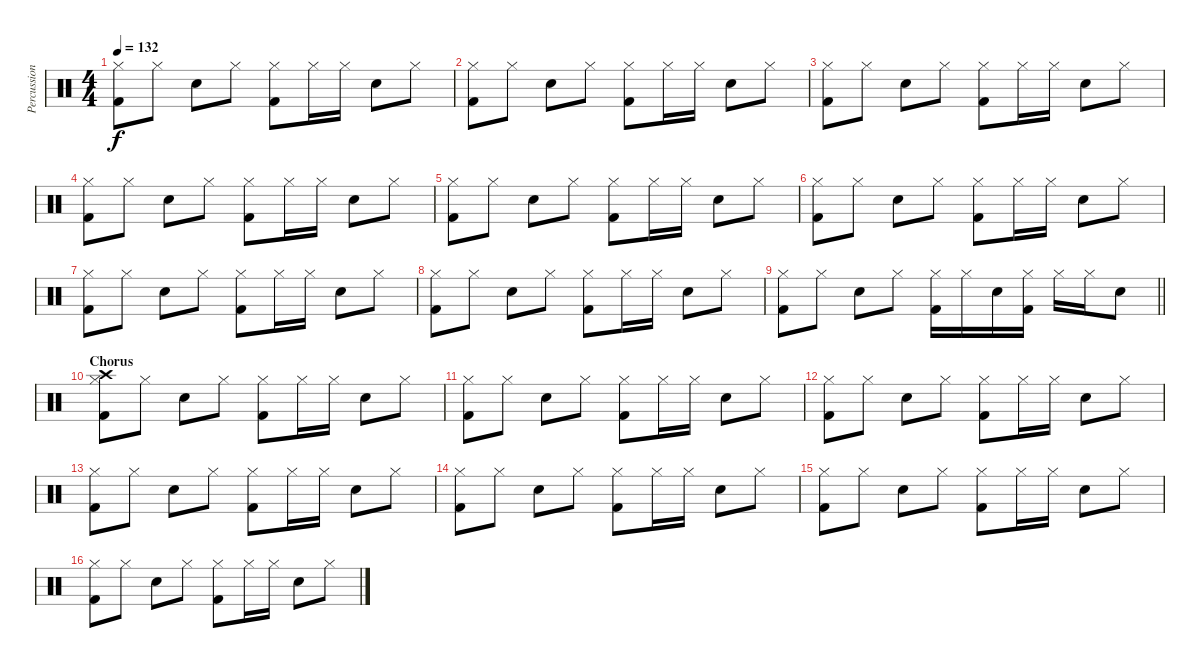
\track ("Percussion" "Percussion") {instrument percussion}
\staff {score}
\articulation defaults
\ts (4 4)
\tempo 132
\clef neutral
\ks c
("Hi-Hat (closed)" "Kick (hit) 2").8{dy f} "Hi-Hat (closed)".8 "Snare (hit) 2".8 "Hi-Hat (closed)".8 ("Hi-Hat (closed)" "Kick (hit) 2").8 "Hi-Hat (closed)".16 "Hi-Hat (closed)".16 "Snare (hit) 2".8 "Hi-Hat (closed)".8 |
("Hi-Hat (closed)" "Kick (hit) 2").8 "Hi-Hat (closed)".8 "Snare (hit) 2".8 "Hi-Hat (closed)".8 ("Hi-Hat (closed)" "Kick (hit) 2").8 "Hi-Hat (closed)".16 "Hi-Hat (closed)".16 "Snare (hit) 2".8 "Hi-Hat (closed)".8 |
("Hi-Hat (closed)" "Kick (hit) 2").8 "Hi-Hat (closed)".8 "Snare (hit) 2".8 "Hi-Hat (closed)".8 ("Hi-Hat (closed)" "Kick (hit) 2").8 "Hi-Hat (closed)".16 "Hi-Hat (closed)".16 "Snare (hit) 2".8 "Hi-Hat (closed)".8 |
("Hi-Hat (closed)" "Kick (hit) 2").8 "Hi-Hat (closed)".8 "Snare (hit) 2".8 "Hi-Hat (closed)".8 ("Hi-Hat (closed)" "Kick (hit) 2").8 "Hi-Hat (closed)".16 "Hi-Hat (closed)".16 "Snare (hit) 2".8 "Hi-Hat (closed)".8 |
("Hi-Hat (closed)" "Kick (hit) 2").8 "Hi-Hat (closed)".8 "Snare (hit) 2".8 "Hi-Hat (closed)".8 ("Hi-Hat (closed)" "Kick (hit) 2").8 "Hi-Hat (closed)".16 "Hi-Hat (closed)".16 "Snare (hit) 2".8 "Hi-Hat (closed)".8 |
("Hi-Hat (closed)" "Kick (hit) 2").8 "Hi-Hat (closed)".8 "Snare (hit) 2".8 "Hi-Hat (closed)".8 ("Hi-Hat (closed)" "Kick (hit) 2").8 "Hi-Hat (closed)".16 "Hi-Hat (closed)".16 "Snare (hit) 2".8 "Hi-Hat (closed)".8 |
("Hi-Hat (closed)" "Kick (hit) 2").8 "Hi-Hat (closed)".8 "Snare (hit) 2".8 "Hi-Hat (closed)".8 ("Hi-Hat (closed)" "Kick (hit) 2").8 "Hi-Hat (closed)".16 "Hi-Hat (closed)".16 "Snare (hit) 2".8 "Hi-Hat (closed)".8 |
("Hi-Hat (closed)" "Kick (hit) 2").8 "Hi-Hat (closed)".8 "Snare (hit) 2".8 "Hi-Hat (closed)".8 ("Hi-Hat (closed)" "Kick (hit) 2").8 "Hi-Hat (closed)".16 "Hi-Hat (closed)".16 "Snare (hit) 2".8 "Hi-Hat (closed)".8 |
\barLineRight lightlight
("Hi-Hat (closed)" "Kick (hit) 2").8 "Hi-Hat (closed)".8 "Snare (hit) 2".8 "Hi-Hat (closed)".8 ("Hi-Hat (closed)" "Kick (hit) 2").16 "Hi-Hat (closed)".16 "Snare (hit) 2".16 ("Hi-Hat (closed)" "Kick (hit) 2").16 "Hi-Hat (closed)".16 "Hi-Hat (closed)".16 "Snare (hit) 2".8 |
\section ("" "Chorus")
("Crash high (hit)" "Hi-Hat (closed)" "Kick (hit) 2").8 "Hi-Hat (closed)".8 "Snare (hit) 2".8 "Hi-Hat (closed)".8 ("Hi-Hat (closed)" "Kick (hit) 2").8 "Hi-Hat (closed)".16 "Hi-Hat (closed)".16 "Snare (hit) 2".8 "Hi-Hat (closed)".8 |
("Hi-Hat (closed)" "Kick (hit) 2").8 "Hi-Hat (closed)".8 "Snare (hit) 2".8 "Hi-Hat (closed)".8 ("Hi-Hat (closed)" "Kick (hit) 2").8 "Hi-Hat (closed)".16 "Hi-Hat (closed)".16 "Snare (hit) 2".8 "Hi-Hat (closed)".8 |
("Hi-Hat (closed)" "Kick (hit) 2").8 "Hi-Hat (closed)".8 "Snare (hit) 2".8 "Hi-Hat (closed)".8 ("Hi-Hat (closed)" "Kick (hit) 2").8 "Hi-Hat (closed)".16 "Hi-Hat (closed)".16 "Snare (hit) 2".8 "Hi-Hat (closed)".8 |
("Hi-Hat (closed)" "Kick (hit) 2").8 "Hi-Hat (closed)".8 "Snare (hit) 2".8 "Hi-Hat (closed)".8 ("Hi-Hat (closed)" "Kick (hit) 2").8 "Hi-Hat (closed)".16 "Hi-Hat (closed)".16 "Snare (hit) 2".8 "Hi-Hat (closed)".8 |
("Hi-Hat (closed)" "Kick (hit) 2").8 "Hi-Hat (closed)".8 "Snare (hit) 2".8 "Hi-Hat (closed)".8 ("Hi-Hat (closed)" "Kick (hit) 2").8 "Hi-Hat (closed)".16 "Hi-Hat (closed)".16 "Snare (hit) 2".8 "Hi-Hat (closed)".8 |
("Hi-Hat (closed)" "Kick (hit) 2").8 "Hi-Hat (closed)".8 "Snare (hit) 2".8 "Hi-Hat (closed)".8 ("Hi-Hat (closed)" "Kick (hit) 2").8 "Hi-Hat (closed)".16 "Hi-Hat (closed)".16 "Snare (hit) 2".8 "Hi-Hat (closed)".8 |
("Hi-Hat (closed)" "Kick (hit) 2").8 "Hi-Hat (closed)".8 "Snare (hit) 2".8 "Hi-Hat (closed)".8 ("Hi-Hat (closed)" "Kick (hit) 2").8 "Hi-Hat (closed)".16 "Hi-Hat (closed)".16 "Snare (hit) 2".8 "Hi-Hat (closed)".8
